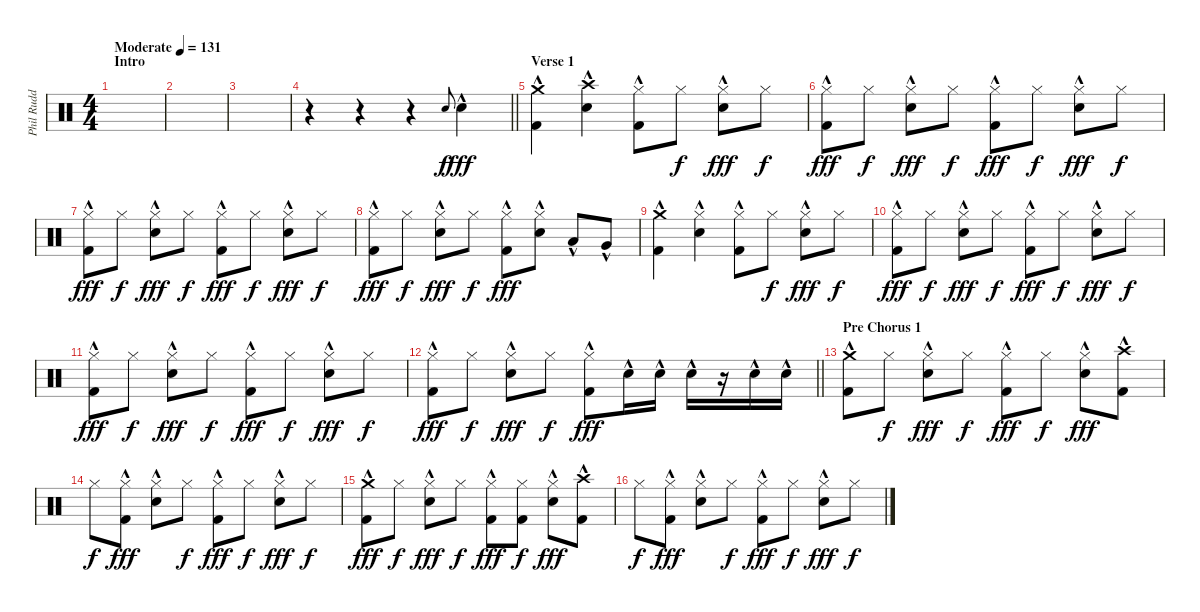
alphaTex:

\track ("Phil Rudd" "Phil Rudd") {instrument percussion}
\staff {score}
\articulation defaults
\ts (4 4)
\section ("" "Intro ")
\tempo (131 "Moderate")
\clef neutral
\ks c
|
|
|
\barLineRight lightlight
r.4 r.4 r.4 "Electric Snare (hit)".8{gr onbeat} "Electric Snare (hit)"{hac}.4{dy fff} |
\section ("" "Verse 1 ")
("Crash medium (hit)" "Kick (hit) 2"{hac}).4 ("Crash high (hit)" "Electric Snare (hit)"{hac}).4 ("Hi-Hat (closed)" "Kick (hit) 2"{hac}).8 "Hi-Hat (closed)".8{dy f} ("Hi-Hat (closed)" "Electric Snare (hit)"{hac}).8{dy fff} "Hi-Hat (closed)".8{dy f} |
("Hi-Hat (closed)" "Kick (hit) 2"{hac}).8{dy fff} "Hi-Hat (closed)".8{dy f} ("Hi-Hat (closed)" "Electric Snare (hit)"{hac}).8{dy fff} "Hi-Hat (closed)".8{dy f} ("Hi-Hat (closed)" "Kick (hit) 2"{hac}).8{dy fff} "Hi-Hat (closed)".8{dy f} ("Hi-Hat (closed)" "Electric Snare (hit)"{hac}).8{dy fff} "Hi-Hat (closed)".8{dy f} |
("Hi-Hat (closed)" "Kick (hit) 2"{hac}).8{dy fff} "Hi-Hat (closed)".8{dy f} ("Hi-Hat (closed)" "Electric Snare (hit)"{hac}).8{dy fff} "Hi-Hat (closed)".8{dy f} ("Hi-Hat (closed)" "Kick (hit) 2"{hac}).8{dy fff} "Hi-Hat (closed)".8{dy f} ("Hi-Hat (closed)" "Electric Snare (hit)"{hac}).8{dy fff} "Hi-Hat (closed)".8{dy f} |
("Hi-Hat (closed)" "Kick (hit) 2"{hac}).8{dy fff} "Hi-Hat (closed)".8{dy f} ("Hi-Hat (closed)" "Electric Snare (hit)"{hac}).8{dy fff} "Hi-Hat (closed)".8{dy f} ("Hi-Hat (closed)" "Kick (hit) 2"{hac}).8{dy fff} ("Hi-Hat (closed)" "Electric Snare (hit)"{hac}).8 "Low Tom (hit)"{hac}.8 "Very Low Tom (hit)"{hac}.8 |
("Crash medium (hit)" "Kick (hit) 2"{hac}).4 ("Hi-Hat (closed)" "Electric Snare (hit)"{hac}).4 ("Hi-Hat (closed)" "Kick (hit) 2"{hac}).8 "Hi-Hat (closed)".8{dy f} ("Hi-Hat (closed)" "Electric Snare (hit)"{hac}).8{dy fff} "Hi-Hat (closed)".8{dy f} |
("Hi-Hat (closed)" "Kick (hit) 2"{hac}).8{dy fff} "Hi-Hat (closed)".8{dy f} ("Hi-Hat (closed)" "Electric Snare (hit)"{hac}).8{dy fff} "Hi-Hat (closed)".8{dy f} ("Hi-Hat (closed)" "Kick (hit) 2"{hac}).8{dy fff} "Hi-Hat (closed)".8{dy f} ("Hi-Hat (closed)" "Electric Snare (hit)"{hac}).8{dy fff} "Hi-Hat (closed)".8{dy f} |
("Hi-Hat (closed)" "Kick (hit) 2"{hac}).8{dy fff} "Hi-Hat (closed)".8{dy f} ("Hi-Hat (closed)" "Electric Snare (hit)"{hac}).8{dy fff} "Hi-Hat (closed)".8{dy f} ("Hi-Hat (closed)" "Kick (hit) 2"{hac}).8{dy fff} "Hi-Hat (closed)".8{dy f} ("Hi-Hat (closed)" "Electric Snare (hit)"{hac}).8{dy fff} "Hi-Hat (closed)".8{dy f} |
\barLineRight lightlight
("Hi-Hat (closed)" "Kick (hit) 2"{hac}).8{dy fff} "Hi-Hat (closed)".8{dy f} ("Hi-Hat (closed)" "Electric Snare (hit)"{hac}).8{dy fff} "Hi-Hat (closed)".8{dy f} ("Hi-Hat (closed)" "Kick (hit) 2"{hac}).8{dy fff} "Electric Snare (hit)"{hac}.16 "Electric Snare (hit)"{hac}.16 "Electric Snare (hit)"{hac}.16 r.16 "Electric Snare (hit)"{hac}.16 "Electric Snare (hit)"{hac}.16 |
\section ("" "Pre Chorus 1 ")
("Crash medium (hit)" "Kick (hit) 2"{hac}).8 "Hi-Hat (closed)".8{dy f} ("Hi-Hat (closed)" "Electric Snare (hit)"{hac}).8{dy fff} "Hi-Hat (closed)".8{dy f} ("Hi-Hat (closed)" "Kick (hit) 2"{hac}).8{dy fff} "Hi-Hat (closed)".8{dy f} ("Hi-Hat (closed)" "Electric Snare (hit)"{hac}).8{dy fff} ("Crash high (hit)" "Kick (hit) 2"{hac}).8 |
"Hi-Hat (closed)".8{dy f} ("Hi-Hat (closed)" "Kick (hit) 2"{hac}).8{dy fff} ("Hi-Hat (closed)" "Electric Snare (hit)"{hac}).8 "Hi-Hat (closed)".8{dy f} ("Hi-Hat (closed)" "Kick (hit) 2"{hac}).8{dy fff} "Hi-Hat (closed)".8{dy f} ("Hi-Hat (closed)" "Electric Snare (hit)"{hac}).8{dy fff} "Hi-Hat (closed)".8{dy f} |
("Crash medium (hit)" "Kick (hit) 2"{hac}).8{dy fff} "Hi-Hat (closed)".8{dy f} ("Hi-Hat (closed)" "Electric Snare (hit)"{hac}).8{dy fff} "Hi-Hat (closed)".8{dy f} ("Hi-Hat (closed)" "Kick (hit) 2"{hac}).8{dy fff} ("Hi-Hat (closed)" "Kick (hit) 2").8{dy f} ("Hi-Hat (closed)" "Electric Snare (hit)"{hac}).8{dy fff} ("Crash high (hit)" "Kick (hit) 2"{hac}).8 |
"Hi-Hat (closed)".8{dy f} ("Hi-Hat (closed)" "Kick (hit) 2"{hac}).8{dy fff} ("Hi-Hat (closed)" "Electric Snare (hit)"{hac}).8 "Hi-Hat (closed)".8{dy f} ("Hi-Hat (closed)" "Kick (hit) 2"{hac}).8{dy fff} "Hi-Hat (closed)".8{dy f} ("Hi-Hat (closed)" "Electric Snare (hit)"{hac}).8{dy fff} "Hi-Hat (closed)".8{dy f}
